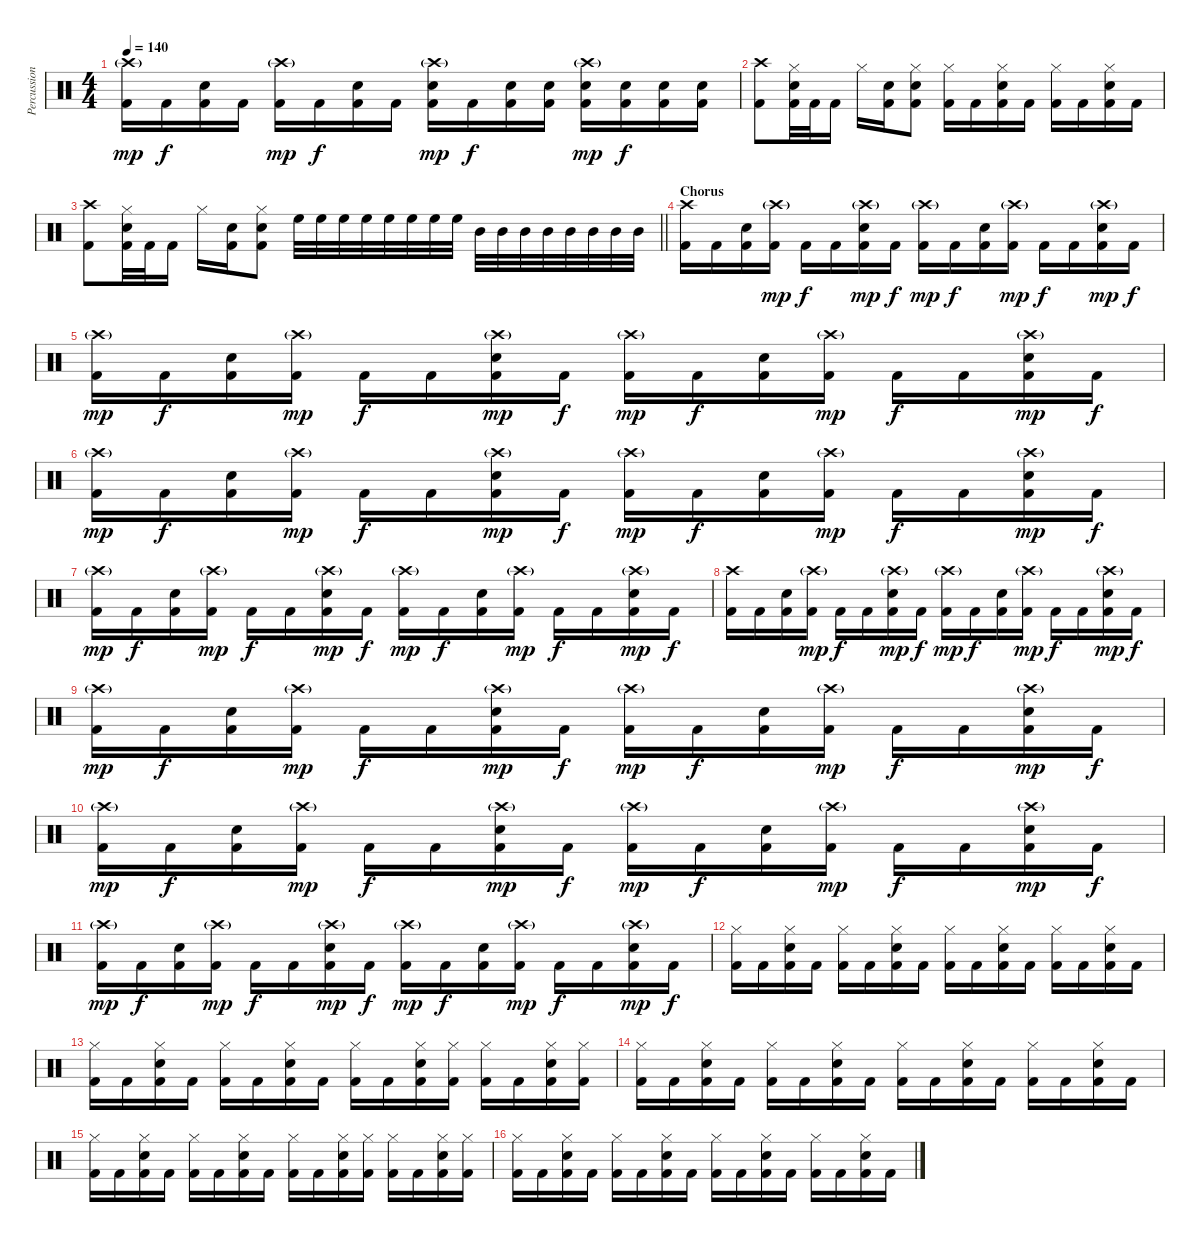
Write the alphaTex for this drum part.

\track ("Percussion" "Percussion") {instrument percussion}
\staff {score}
\articulation defaults
\ts (4 4)
\tempo 140
\clef neutral
\ks c
("Crash high (hit)"{g} "Kick (hit) 2").16{dy mp} "Kick (hit) 2".16{dy f} ("Electric Snare (hit)" "Kick (hit) 2").16 "Kick (hit) 2".16 ("Crash high (hit)"{g} "Kick (hit) 2").16{dy mp} "Kick (hit) 2".16{dy f} ("Electric Snare (hit)" "Kick (hit) 2").16 "Kick (hit) 2".16 ("Crash high (hit)"{g} "Electric Snare (hit)" "Kick (hit) 2").16{dy mp} "Kick (hit) 2".16{dy f} ("Electric Snare (hit)" "Kick (hit) 2").16 ("Electric Snare (hit)" "Kick (hit) 2").16 ("Crash high (hit)"{g} "Electric Snare (hit)" "Kick (hit) 2").16{dy mp} ("Electric Snare (hit)" "Kick (hit) 2").16{dy f} ("Electric Snare (hit)" "Kick (hit) 2").16 ("Electric Snare (hit)" "Kick (hit) 2").16 |
("Crash high (hit)" "Kick (hit) 2").8 ("Hi-Hat (closed)" "Electric Snare (hit)" "Kick (hit) 2").32 "Kick (hit) 2".32 "Kick (hit) 2".16 "Hi-Hat (closed)".16 ("Electric Snare (hit)" "Kick (hit) 2").16 ("Hi-Hat (closed)" "Electric Snare (hit)" "Kick (hit) 2").8 ("Hi-Hat (closed)" "Kick (hit) 2").16 "Kick (hit) 2".16 ("Hi-Hat (closed)" "Electric Snare (hit)" "Kick (hit) 2").16 "Kick (hit) 2".16 ("Hi-Hat (closed)" "Kick (hit) 2").16 "Kick (hit) 2".16 ("Hi-Hat (closed)" "Electric Snare (hit)" "Kick (hit) 2").16 "Kick (hit) 2".16 |
\barLineRight lightlight
("Crash high (hit)" "Kick (hit) 2").8 ("Hi-Hat (closed)" "Electric Snare (hit)" "Kick (hit) 2").32 "Kick (hit) 2".32 "Kick (hit) 2".16 "Hi-Hat (closed)".16 ("Electric Snare (hit)" "Kick (hit) 2").16 ("Hi-Hat (closed)" "Electric Snare (hit)" "Kick (hit) 2").8 "High Floor Tom (hit)".32 "High Floor Tom (hit)".32 "High Floor Tom (hit)".32 "High Floor Tom (hit)".32 "High Floor Tom (hit)".32 "High Floor Tom (hit)".32 "High Floor Tom (hit)".32 "High Floor Tom (hit)".32 "Mid Tom (hit)".32 "Mid Tom (hit)".32 "Mid Tom (hit)".32 "Mid Tom (hit)".32 "Mid Tom (hit)".32 "Mid Tom (hit)".32 "Mid Tom (hit)".32 "Mid Tom (hit)".32 |
\section ("" "Chorus")
("Crash high (hit)" "Kick (hit) 2").16 "Kick (hit) 2".16 ("Electric Snare (hit)" "Kick (hit) 2").16 ("Crash high (hit)"{g} "Kick (hit) 2").16{dy mp} "Kick (hit) 2".16{dy f} "Kick (hit) 2".16 ("Crash high (hit)"{g} "Electric Snare (hit)" "Kick (hit) 2").16{dy mp} "Kick (hit) 2".16{dy f} ("Crash high (hit)"{g} "Kick (hit) 2").16{dy mp} "Kick (hit) 2".16{dy f} ("Electric Snare (hit)" "Kick (hit) 2").16 ("Crash high (hit)"{g} "Kick (hit) 2").16{dy mp} "Kick (hit) 2".16{dy f} "Kick (hit) 2".16 ("Crash high (hit)"{g} "Electric Snare (hit)" "Kick (hit) 2").16{dy mp} "Kick (hit) 2".16{dy f} |
("Crash high (hit)"{g} "Kick (hit) 2").16{dy mp} "Kick (hit) 2".16{dy f} ("Electric Snare (hit)" "Kick (hit) 2").16 ("Crash high (hit)"{g} "Kick (hit) 2").16{dy mp} "Kick (hit) 2".16{dy f} "Kick (hit) 2".16 ("Crash high (hit)"{g} "Electric Snare (hit)" "Kick (hit) 2").16{dy mp} "Kick (hit) 2".16{dy f} ("Crash high (hit)"{g} "Kick (hit) 2").16{dy mp} "Kick (hit) 2".16{dy f} ("Electric Snare (hit)" "Kick (hit) 2").16 ("Crash high (hit)"{g} "Kick (hit) 2").16{dy mp} "Kick (hit) 2".16{dy f} "Kick (hit) 2".16 ("Crash high (hit)"{g} "Electric Snare (hit)" "Kick (hit) 2").16{dy mp} "Kick (hit) 2".16{dy f} |
("Crash high (hit)"{g} "Kick (hit) 2").16{dy mp} "Kick (hit) 2".16{dy f} ("Electric Snare (hit)" "Kick (hit) 2").16 ("Crash high (hit)"{g} "Kick (hit) 2").16{dy mp} "Kick (hit) 2".16{dy f} "Kick (hit) 2".16 ("Crash high (hit)"{g} "Electric Snare (hit)" "Kick (hit) 2").16{dy mp} "Kick (hit) 2".16{dy f} ("Crash high (hit)"{g} "Kick (hit) 2").16{dy mp} "Kick (hit) 2".16{dy f} ("Electric Snare (hit)" "Kick (hit) 2").16 ("Crash high (hit)"{g} "Kick (hit) 2").16{dy mp} "Kick (hit) 2".16{dy f} "Kick (hit) 2".16 ("Crash high (hit)"{g} "Electric Snare (hit)" "Kick (hit) 2").16{dy mp} "Kick (hit) 2".16{dy f} |
("Crash high (hit)"{g} "Kick (hit) 2").16{dy mp} "Kick (hit) 2".16{dy f} ("Electric Snare (hit)" "Kick (hit) 2").16 ("Crash high (hit)"{g} "Kick (hit) 2").16{dy mp} "Kick (hit) 2".16{dy f} "Kick (hit) 2".16 ("Crash high (hit)"{g} "Electric Snare (hit)" "Kick (hit) 2").16{dy mp} "Kick (hit) 2".16{dy f} ("Crash high (hit)"{g} "Kick (hit) 2").16{dy mp} "Kick (hit) 2".16{dy f} ("Electric Snare (hit)" "Kick (hit) 2").16 ("Crash high (hit)"{g} "Kick (hit) 2").16{dy mp} "Kick (hit) 2".16{dy f} "Kick (hit) 2".16 ("Crash high (hit)"{g} "Electric Snare (hit)" "Kick (hit) 2").16{dy mp} "Kick (hit) 2".16{dy f} |
("Crash high (hit)" "Kick (hit) 2").16 "Kick (hit) 2".16 ("Electric Snare (hit)" "Kick (hit) 2").16 ("Crash high (hit)"{g} "Kick (hit) 2").16{dy mp} "Kick (hit) 2".16{dy f} "Kick (hit) 2".16 ("Crash high (hit)"{g} "Electric Snare (hit)" "Kick (hit) 2").16{dy mp} "Kick (hit) 2".16{dy f} ("Crash high (hit)"{g} "Kick (hit) 2").16{dy mp} "Kick (hit) 2".16{dy f} ("Electric Snare (hit)" "Kick (hit) 2").16 ("Crash high (hit)"{g} "Kick (hit) 2").16{dy mp} "Kick (hit) 2".16{dy f} "Kick (hit) 2".16 ("Crash high (hit)"{g} "Electric Snare (hit)" "Kick (hit) 2").16{dy mp} "Kick (hit) 2".16{dy f} |
("Crash high (hit)"{g} "Kick (hit) 2").16{dy mp} "Kick (hit) 2".16{dy f} ("Electric Snare (hit)" "Kick (hit) 2").16 ("Crash high (hit)"{g} "Kick (hit) 2").16{dy mp} "Kick (hit) 2".16{dy f} "Kick (hit) 2".16 ("Crash high (hit)"{g} "Electric Snare (hit)" "Kick (hit) 2").16{dy mp} "Kick (hit) 2".16{dy f} ("Crash high (hit)"{g} "Kick (hit) 2").16{dy mp} "Kick (hit) 2".16{dy f} ("Electric Snare (hit)" "Kick (hit) 2").16 ("Crash high (hit)"{g} "Kick (hit) 2").16{dy mp} "Kick (hit) 2".16{dy f} "Kick (hit) 2".16 ("Crash high (hit)"{g} "Electric Snare (hit)" "Kick (hit) 2").16{dy mp} "Kick (hit) 2".16{dy f} |
("Crash high (hit)"{g} "Kick (hit) 2").16{dy mp} "Kick (hit) 2".16{dy f} ("Electric Snare (hit)" "Kick (hit) 2").16 ("Crash high (hit)"{g} "Kick (hit) 2").16{dy mp} "Kick (hit) 2".16{dy f} "Kick (hit) 2".16 ("Crash high (hit)"{g} "Electric Snare (hit)" "Kick (hit) 2").16{dy mp} "Kick (hit) 2".16{dy f} ("Crash high (hit)"{g} "Kick (hit) 2").16{dy mp} "Kick (hit) 2".16{dy f} ("Electric Snare (hit)" "Kick (hit) 2").16 ("Crash high (hit)"{g} "Kick (hit) 2").16{dy mp} "Kick (hit) 2".16{dy f} "Kick (hit) 2".16 ("Crash high (hit)"{g} "Electric Snare (hit)" "Kick (hit) 2").16{dy mp} "Kick (hit) 2".16{dy f} |
("Crash high (hit)"{g} "Kick (hit) 2").16{dy mp} "Kick (hit) 2".16{dy f} ("Electric Snare (hit)" "Kick (hit) 2").16 ("Crash high (hit)"{g} "Kick (hit) 2").16{dy mp} "Kick (hit) 2".16{dy f} "Kick (hit) 2".16 ("Crash high (hit)"{g} "Electric Snare (hit)" "Kick (hit) 2").16{dy mp} "Kick (hit) 2".16{dy f} ("Crash high (hit)"{g} "Kick (hit) 2").16{dy mp} "Kick (hit) 2".16{dy f} ("Electric Snare (hit)" "Kick (hit) 2").16 ("Crash high (hit)"{g} "Kick (hit) 2").16{dy mp} "Kick (hit) 2".16{dy f} "Kick (hit) 2".16 ("Crash high (hit)"{g} "Electric Snare (hit)" "Kick (hit) 2").16{dy mp} "Kick (hit) 2".16{dy f} |
("Hi-Hat (closed)" "Kick (hit) 2").16 "Kick (hit) 2".16 ("Hi-Hat (closed)" "Electric Snare (hit)" "Kick (hit) 2").16 "Kick (hit) 2".16 ("Hi-Hat (closed)" "Kick (hit) 2").16 "Kick (hit) 2".16 ("Hi-Hat (closed)" "Electric Snare (hit)" "Kick (hit) 2").16 "Kick (hit) 2".16 ("Hi-Hat (closed)" "Kick (hit) 2").16 "Kick (hit) 2".16 ("Hi-Hat (closed)" "Electric Snare (hit)" "Kick (hit) 2").16 "Kick (hit) 2".16 ("Hi-Hat (closed)" "Kick (hit) 2").16 "Kick (hit) 2".16 ("Hi-Hat (closed)" "Electric Snare (hit)" "Kick (hit) 2").16 "Kick (hit) 2".16 |
("Hi-Hat (closed)" "Kick (hit) 2").16 "Kick (hit) 2".16 ("Hi-Hat (closed)" "Electric Snare (hit)" "Kick (hit) 2").16 "Kick (hit) 2".16 ("Hi-Hat (closed)" "Kick (hit) 2").16 "Kick (hit) 2".16 ("Hi-Hat (closed)" "Electric Snare (hit)" "Kick (hit) 2").16 "Kick (hit) 2".16 ("Hi-Hat (closed)" "Kick (hit) 2").16 "Kick (hit) 2".16 ("Hi-Hat (closed)" "Electric Snare (hit)" "Kick (hit) 2").16 ("Hi-Hat (closed)" "Kick (hit) 2").16 ("Hi-Hat (closed)" "Kick (hit) 2").16 "Kick (hit) 2".16 ("Hi-Hat (closed)" "Electric Snare (hit)" "Kick (hit) 2").16 ("Hi-Hat (closed)" "Kick (hit) 2").16 |
("Hi-Hat (closed)" "Kick (hit) 2").16 "Kick (hit) 2".16 ("Hi-Hat (closed)" "Electric Snare (hit)" "Kick (hit) 2").16 "Kick (hit) 2".16 ("Hi-Hat (closed)" "Kick (hit) 2").16 "Kick (hit) 2".16 ("Hi-Hat (closed)" "Electric Snare (hit)" "Kick (hit) 2").16 "Kick (hit) 2".16 ("Hi-Hat (closed)" "Kick (hit) 2").16 "Kick (hit) 2".16 ("Hi-Hat (closed)" "Electric Snare (hit)" "Kick (hit) 2").16 "Kick (hit) 2".16 ("Hi-Hat (closed)" "Kick (hit) 2").16 "Kick (hit) 2".16 ("Hi-Hat (closed)" "Electric Snare (hit)" "Kick (hit) 2").16 "Kick (hit) 2".16 |
("Hi-Hat (closed)" "Kick (hit) 2").16 "Kick (hit) 2".16 ("Hi-Hat (closed)" "Electric Snare (hit)" "Kick (hit) 2").16 "Kick (hit) 2".16 ("Hi-Hat (closed)" "Kick (hit) 2").16 "Kick (hit) 2".16 ("Hi-Hat (closed)" "Electric Snare (hit)" "Kick (hit) 2").16 "Kick (hit) 2".16 ("Hi-Hat (closed)" "Kick (hit) 2").16 "Kick (hit) 2".16 ("Hi-Hat (closed)" "Electric Snare (hit)" "Kick (hit) 2").16 ("Hi-Hat (closed)" "Kick (hit) 2").16 ("Hi-Hat (closed)" "Kick (hit) 2").16 "Kick (hit) 2".16 ("Hi-Hat (closed)" "Electric Snare (hit)" "Kick (hit) 2").16 ("Hi-Hat (closed)" "Kick (hit) 2").16 |
("Hi-Hat (closed)" "Kick (hit) 2").16 "Kick (hit) 2".16 ("Hi-Hat (closed)" "Electric Snare (hit)" "Kick (hit) 2").16 "Kick (hit) 2".16 ("Hi-Hat (closed)" "Kick (hit) 2").16 "Kick (hit) 2".16 ("Hi-Hat (closed)" "Electric Snare (hit)" "Kick (hit) 2").16 "Kick (hit) 2".16 ("Hi-Hat (closed)" "Kick (hit) 2").16 "Kick (hit) 2".16 ("Hi-Hat (closed)" "Electric Snare (hit)" "Kick (hit) 2").16 "Kick (hit) 2".16 ("Hi-Hat (closed)" "Kick (hit) 2").16 "Kick (hit) 2".16 ("Hi-Hat (closed)" "Electric Snare (hit)" "Kick (hit) 2").16 "Kick (hit) 2".16
